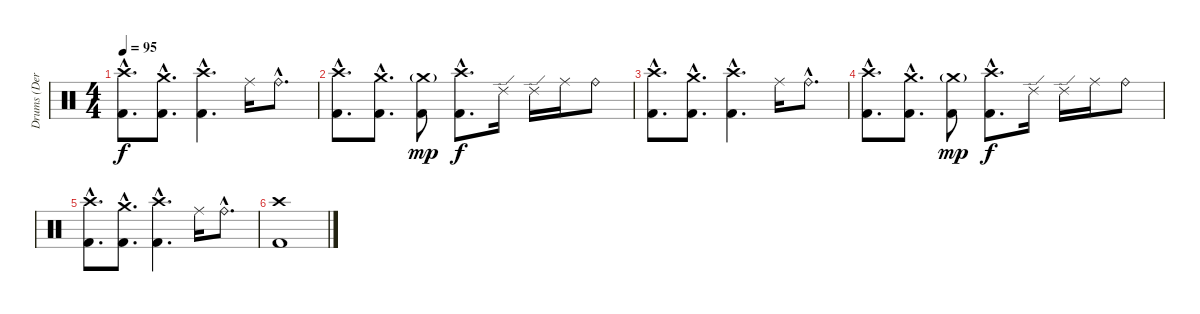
\track ("Drums (Derek Bloom)" "Drums (Der") {instrument percussion}
\staff {score}
\articulation defaults
\ts (4 4)
\tempo 95
\clef neutral
\ks c
("Crash high (hit)"{hac} "Kick (hit) 2"{hac}).8{d dy f} ("Crash medium (hit)"{hac} "Kick (hit) 2"{hac}).8{d} ("Crash high (hit)"{hac} "Kick (hit) 2"{hac}).4{d} "Ride (middle)".16 "Ride (bell)"{hac}.8{d} |
("Crash high (hit)"{hac} "Kick (hit) 2"{hac}).8{d} ("Crash medium (hit)"{hac} "Kick (hit) 2"{hac}).8{d} ("Crash medium (hit)"{g} "Kick (hit) 2").8{dy mp} ("Crash high (hit)"{hac} "Kick (hit) 2"{hac}).8{d dy f} "Ride (edge) 2".16 "Ride (edge) 2".16 "Ride (middle)".16 "Ride (bell)".8 |
("Crash high (hit)"{hac} "Kick (hit) 2"{hac}).8{d} ("Crash medium (hit)"{hac} "Kick (hit) 2"{hac}).8{d} ("Crash high (hit)"{hac} "Kick (hit) 2"{hac}).4{d} "Ride (middle)".16 "Ride (bell)"{hac}.8{d} |
("Crash high (hit)"{hac} "Kick (hit) 2"{hac}).8{d} ("Crash medium (hit)"{hac} "Kick (hit) 2"{hac}).8{d} ("Crash medium (hit)"{g} "Kick (hit) 2").8{dy mp} ("Crash high (hit)"{hac} "Kick (hit) 2"{hac}).8{d dy f} "Ride (edge) 2".16 "Ride (edge) 2".16 "Ride (middle)".16 "Ride (bell)".8 |
("Crash high (hit)"{hac} "Kick (hit) 2"{hac}).8{d} ("Crash medium (hit)"{hac} "Kick (hit) 2"{hac}).8{d} ("Crash high (hit)"{hac} "Kick (hit) 2"{hac}).4{d} "Ride (middle)".16 "Ride (bell)"{hac}.8{d} |
("Crash high (hit)" "Kick (hit) 2").1
